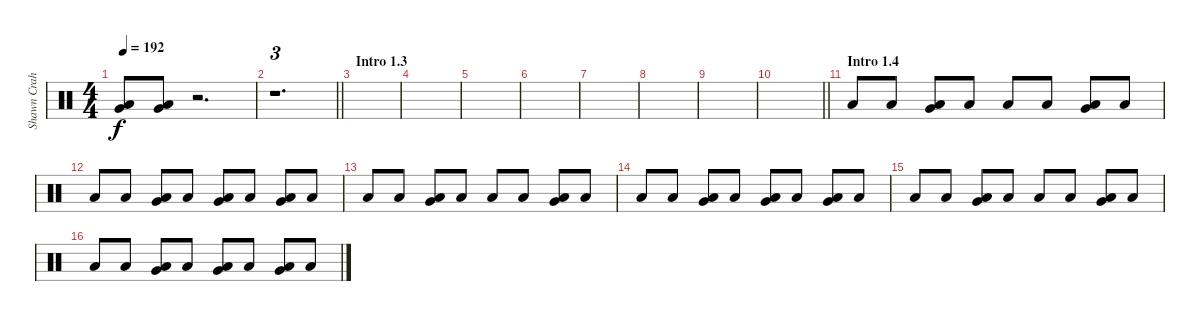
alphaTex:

\track ("Shawn Crahan" "Shawn Crah") {instrument percussion}
\staff {score}
\articulation defaults
\ts (4 4)
\tempo 192
\clef neutral
\ks c
("Very Low Tom (hit)" "Low Floor Tom (hit)").8{dy f} ("Very Low Tom (hit)" "Low Floor Tom (hit)").8 r.2{d} |
\barLineRight lightlight
r.1{d tu (3 2)} |
\section ("" "Intro 1.3")
|
|
|
|
|
|
|
\barLineRight lightlight
|
\section ("" "Intro 1.4")
"Low Floor Tom (hit)".8 "Low Floor Tom (hit)".8 ("Very Low Tom (hit)" "Low Floor Tom (hit)").8 "Low Floor Tom (hit)".8 "Low Floor Tom (hit)".8 "Low Floor Tom (hit)".8 ("Very Low Tom (hit)" "Low Floor Tom (hit)").8 "Low Floor Tom (hit)".8 |
"Low Floor Tom (hit)".8 "Low Floor Tom (hit)".8 ("Very Low Tom (hit)" "Low Floor Tom (hit)").8 "Low Floor Tom (hit)".8 ("Very Low Tom (hit)" "Low Floor Tom (hit)").8 "Low Floor Tom (hit)".8 ("Very Low Tom (hit)" "Low Floor Tom (hit)").8 "Low Floor Tom (hit)".8 |
"Low Floor Tom (hit)".8 "Low Floor Tom (hit)".8 ("Very Low Tom (hit)" "Low Floor Tom (hit)").8 "Low Floor Tom (hit)".8 "Low Floor Tom (hit)".8 "Low Floor Tom (hit)".8 ("Very Low Tom (hit)" "Low Floor Tom (hit)").8 "Low Floor Tom (hit)".8 |
"Low Floor Tom (hit)".8 "Low Floor Tom (hit)".8 ("Very Low Tom (hit)" "Low Floor Tom (hit)").8 "Low Floor Tom (hit)".8 ("Very Low Tom (hit)" "Low Floor Tom (hit)").8 "Low Floor Tom (hit)".8 ("Very Low Tom (hit)" "Low Floor Tom (hit)").8 "Low Floor Tom (hit)".8 |
"Low Floor Tom (hit)".8 "Low Floor Tom (hit)".8 ("Very Low Tom (hit)" "Low Floor Tom (hit)").8 "Low Floor Tom (hit)".8 "Low Floor Tom (hit)".8 "Low Floor Tom (hit)".8 ("Very Low Tom (hit)" "Low Floor Tom (hit)").8 "Low Floor Tom (hit)".8 |
"Low Floor Tom (hit)".8 "Low Floor Tom (hit)".8 ("Very Low Tom (hit)" "Low Floor Tom (hit)").8 "Low Floor Tom (hit)".8 ("Very Low Tom (hit)" "Low Floor Tom (hit)").8 "Low Floor Tom (hit)".8 ("Very Low Tom (hit)" "Low Floor Tom (hit)").8 "Low Floor Tom (hit)".8
